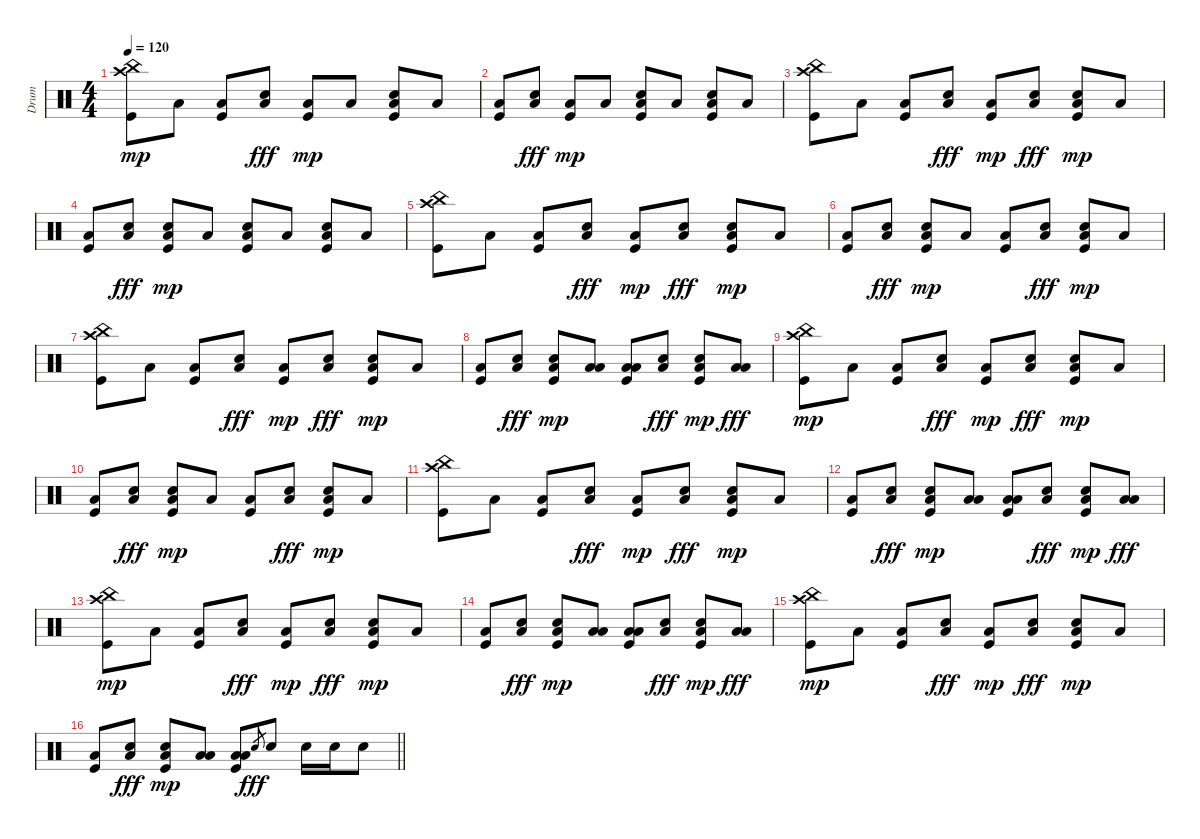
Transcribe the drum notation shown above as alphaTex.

\track ("Drum" "Drum") {instrument percussion}
\staff {score}
\articulation defaults
\ts (4 4)
\tempo 120
\clef neutral
\ks c
("Crash high (hit)" "Kick (hit)" "China (hit)").8{dy mp} "Low Floor Tom (hit)".8 ("Low Floor Tom (hit)" "Kick (hit)").8 ("Low Floor Tom (hit)" "Electric Snare (hit)").8{dy fff} ("Low Floor Tom (hit)" "Kick (hit)").8{dy mp} "Low Floor Tom (hit)".8 ("Low Floor Tom (hit)" "Electric Snare (hit)" "Kick (hit)").8 "Low Floor Tom (hit)".8 |
("Low Floor Tom (hit)" "Kick (hit)").8 ("Low Floor Tom (hit)" "Electric Snare (hit)").8{dy fff} ("Low Floor Tom (hit)" "Kick (hit)").8{dy mp} "Low Floor Tom (hit)".8 ("Low Floor Tom (hit)" "Electric Snare (hit)" "Kick (hit)").8 "Low Floor Tom (hit)".8 ("Low Floor Tom (hit)" "Electric Snare (hit)" "Kick (hit)").8 "Low Floor Tom (hit)".8 |
("Crash high (hit)" "Kick (hit)" "China (hit)").8 "Low Floor Tom (hit)".8 ("Low Floor Tom (hit)" "Kick (hit)").8 ("Low Floor Tom (hit)" "Electric Snare (hit)").8{dy fff} ("Low Floor Tom (hit)" "Kick (hit)").8{dy mp} ("Low Floor Tom (hit)" "Electric Snare (hit)").8{dy fff} ("Low Floor Tom (hit)" "Electric Snare (hit)" "Kick (hit)").8{dy mp} "Low Floor Tom (hit)".8 |
("Low Floor Tom (hit)" "Kick (hit)").8 ("Low Floor Tom (hit)" "Electric Snare (hit)").8{dy fff} ("Low Floor Tom (hit)" "Electric Snare (hit)" "Kick (hit)").8{dy mp} "Low Floor Tom (hit)".8 ("Low Floor Tom (hit)" "Electric Snare (hit)" "Kick (hit)").8 "Low Floor Tom (hit)".8 ("Low Floor Tom (hit)" "Electric Snare (hit)" "Kick (hit)").8 "Low Floor Tom (hit)".8 |
("Crash high (hit)" "Kick (hit)" "China (hit)").8 "Low Floor Tom (hit)".8 ("Low Floor Tom (hit)" "Kick (hit)").8 ("Low Floor Tom (hit)" "Electric Snare (hit)").8{dy fff} ("Low Floor Tom (hit)" "Kick (hit)").8{dy mp} ("Low Floor Tom (hit)" "Electric Snare (hit)").8{dy fff} ("Low Floor Tom (hit)" "Electric Snare (hit)" "Kick (hit)").8{dy mp} "Low Floor Tom (hit)".8 |
("Low Floor Tom (hit)" "Kick (hit)").8 ("Low Floor Tom (hit)" "Electric Snare (hit)").8{dy fff} ("Low Floor Tom (hit)" "Electric Snare (hit)" "Kick (hit)").8{dy mp} "Low Floor Tom (hit)".8 ("Low Floor Tom (hit)" "Kick (hit)").8 ("Low Floor Tom (hit)" "Electric Snare (hit)").8{dy fff} ("Low Floor Tom (hit)" "Electric Snare (hit)" "Kick (hit)").8{dy mp} "Low Floor Tom (hit)".8 |
("Crash high (hit)" "Kick (hit)" "China (hit)").8 "Low Floor Tom (hit)".8 ("Low Floor Tom (hit)" "Kick (hit)").8 ("Low Floor Tom (hit)" "Electric Snare (hit)").8{dy fff} ("Low Floor Tom (hit)" "Kick (hit)").8{dy mp} ("Low Floor Tom (hit)" "Electric Snare (hit)").8{dy fff} ("Low Floor Tom (hit)" "Electric Snare (hit)" "Kick (hit)").8{dy mp} "Low Floor Tom (hit)".8 |
("Low Floor Tom (hit)" "Kick (hit)").8 ("Low Floor Tom (hit)" "Electric Snare (hit)").8{dy fff} ("Low Floor Tom (hit)" "Electric Snare (hit)" "Kick (hit)").8{dy mp} ("Low Tom (hit)" "Low Floor Tom (hit)").8 ("Low Tom (hit)" "Low Floor Tom (hit)" "Kick (hit)").8 ("Low Floor Tom (hit)" "Electric Snare (hit)").8{dy fff} ("Low Floor Tom (hit)" "Electric Snare (hit)" "Kick (hit)").8{dy mp} ("Low Floor Tom (hit)" "Low Tom (hit)").8{dy fff} |
("Crash high (hit)" "Kick (hit)" "China (hit)").8{dy mp} "Low Floor Tom (hit)".8 ("Low Floor Tom (hit)" "Kick (hit)").8 ("Low Floor Tom (hit)" "Electric Snare (hit)").8{dy fff} ("Low Floor Tom (hit)" "Kick (hit)").8{dy mp} ("Low Floor Tom (hit)" "Electric Snare (hit)").8{dy fff} ("Low Floor Tom (hit)" "Electric Snare (hit)" "Kick (hit)").8{dy mp} "Low Floor Tom (hit)".8 |
("Low Floor Tom (hit)" "Kick (hit)").8 ("Low Floor Tom (hit)" "Electric Snare (hit)").8{dy fff} ("Low Floor Tom (hit)" "Electric Snare (hit)" "Kick (hit)").8{dy mp} "Low Floor Tom (hit)".8 ("Low Floor Tom (hit)" "Kick (hit)").8 ("Low Floor Tom (hit)" "Electric Snare (hit)").8{dy fff} ("Low Floor Tom (hit)" "Electric Snare (hit)" "Kick (hit)").8{dy mp} "Low Floor Tom (hit)".8 |
("Crash high (hit)" "Kick (hit)" "China (hit)").8 "Low Floor Tom (hit)".8 ("Low Floor Tom (hit)" "Kick (hit)").8 ("Low Floor Tom (hit)" "Electric Snare (hit)").8{dy fff} ("Low Floor Tom (hit)" "Kick (hit)").8{dy mp} ("Low Floor Tom (hit)" "Electric Snare (hit)").8{dy fff} ("Low Floor Tom (hit)" "Electric Snare (hit)" "Kick (hit)").8{dy mp} "Low Floor Tom (hit)".8 |
("Low Floor Tom (hit)" "Kick (hit)").8 ("Low Floor Tom (hit)" "Electric Snare (hit)").8{dy fff} ("Low Floor Tom (hit)" "Electric Snare (hit)" "Kick (hit)").8{dy mp} ("Low Tom (hit)" "Low Floor Tom (hit)").8 ("Low Tom (hit)" "Low Floor Tom (hit)" "Kick (hit)").8 ("Low Floor Tom (hit)" "Electric Snare (hit)").8{dy fff} ("Low Floor Tom (hit)" "Electric Snare (hit)" "Kick (hit)").8{dy mp} ("Low Floor Tom (hit)" "Low Tom (hit)").8{dy fff} |
("Crash high (hit)" "Kick (hit)" "China (hit)").8{dy mp} "Low Floor Tom (hit)".8 ("Low Floor Tom (hit)" "Kick (hit)").8 ("Low Floor Tom (hit)" "Electric Snare (hit)").8{dy fff} ("Low Floor Tom (hit)" "Kick (hit)").8{dy mp} ("Low Floor Tom (hit)" "Electric Snare (hit)").8{dy fff} ("Low Floor Tom (hit)" "Electric Snare (hit)" "Kick (hit)").8{dy mp} "Low Floor Tom (hit)".8 |
("Low Floor Tom (hit)" "Kick (hit)").8 ("Low Floor Tom (hit)" "Electric Snare (hit)").8{dy fff} ("Low Floor Tom (hit)" "Electric Snare (hit)" "Kick (hit)").8{dy mp} ("Low Tom (hit)" "Low Floor Tom (hit)").8 ("Low Tom (hit)" "Low Floor Tom (hit)" "Kick (hit)").8 ("Low Floor Tom (hit)" "Electric Snare (hit)").8{dy fff} ("Low Floor Tom (hit)" "Electric Snare (hit)" "Kick (hit)").8{dy mp} ("Low Floor Tom (hit)" "Low Tom (hit)").8{dy fff} |
("Crash high (hit)" "Kick (hit)" "China (hit)").8{dy mp} "Low Floor Tom (hit)".8 ("Low Floor Tom (hit)" "Kick (hit)").8 ("Low Floor Tom (hit)" "Electric Snare (hit)").8{dy fff} ("Low Floor Tom (hit)" "Kick (hit)").8{dy mp} ("Low Floor Tom (hit)" "Electric Snare (hit)").8{dy fff} ("Low Floor Tom (hit)" "Electric Snare (hit)" "Kick (hit)").8{dy mp} "Low Floor Tom (hit)".8 |
\barLineRight lightlight
("Low Floor Tom (hit)" "Kick (hit)").8 ("Low Floor Tom (hit)" "Electric Snare (hit)").8{dy fff} ("Low Floor Tom (hit)" "Electric Snare (hit)" "Kick (hit)").8{dy mp} ("Low Tom (hit)" "Low Floor Tom (hit)").8 ("Low Tom (hit)" "Low Floor Tom (hit)" "Kick (hit)").8 "Electric Snare (hit)".8{gr dy fff} "Electric Snare (hit)".8 "Electric Snare (hit)".16 "Electric Snare (hit)".16 "Electric Snare (hit)".8
